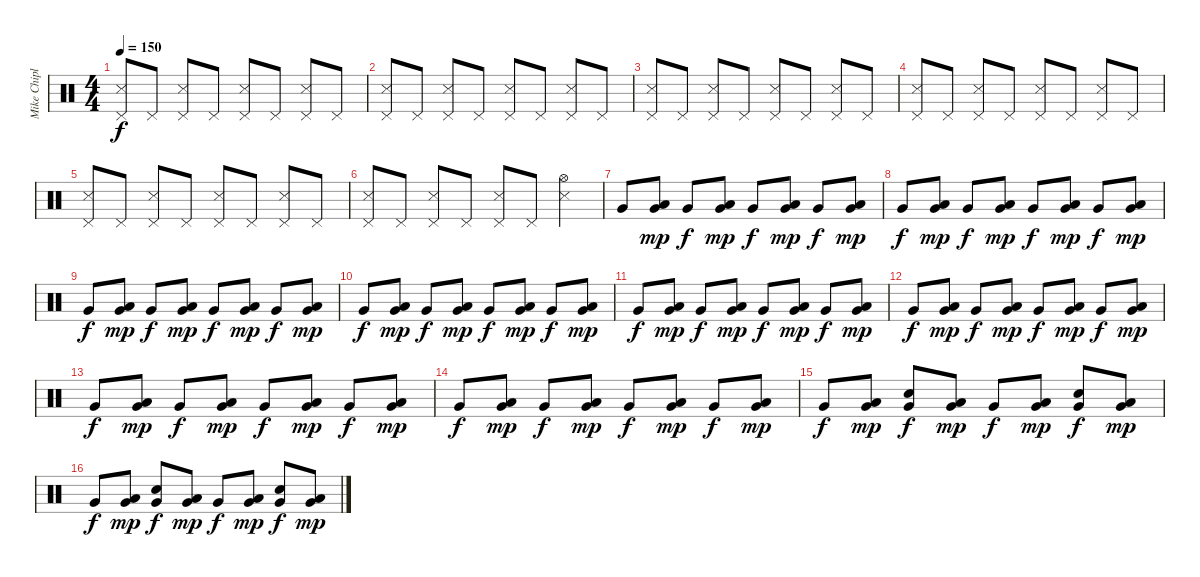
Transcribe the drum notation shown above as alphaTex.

\track ("Mike Chiplin" "Mike Chipl") {instrument percussion}
\staff {score}
\articulation defaults
\ts (4 4)
\tempo 150
\clef neutral
\ks c
("Pedal Hi-Hat (hit)" "Snare (side stick) 3").8{dy f} "Pedal Hi-Hat (hit)".8 ("Pedal Hi-Hat (hit)" "Snare (side stick) 3").8 "Pedal Hi-Hat (hit)".8 ("Pedal Hi-Hat (hit)" "Snare (side stick) 3").8 "Pedal Hi-Hat (hit)".8 ("Pedal Hi-Hat (hit)" "Snare (side stick) 3").8 "Pedal Hi-Hat (hit)".8 |
("Pedal Hi-Hat (hit)" "Snare (side stick) 3").8 "Pedal Hi-Hat (hit)".8 ("Pedal Hi-Hat (hit)" "Snare (side stick) 3").8 "Pedal Hi-Hat (hit)".8 ("Pedal Hi-Hat (hit)" "Snare (side stick) 3").8 "Pedal Hi-Hat (hit)".8 ("Pedal Hi-Hat (hit)" "Snare (side stick) 3").8 "Pedal Hi-Hat (hit)".8 |
("Pedal Hi-Hat (hit)" "Snare (side stick) 3").8 "Pedal Hi-Hat (hit)".8 ("Pedal Hi-Hat (hit)" "Snare (side stick) 3").8 "Pedal Hi-Hat (hit)".8 ("Pedal Hi-Hat (hit)" "Snare (side stick) 3").8 "Pedal Hi-Hat (hit)".8 ("Pedal Hi-Hat (hit)" "Snare (side stick) 3").8 "Pedal Hi-Hat (hit)".8 |
("Pedal Hi-Hat (hit)" "Snare (side stick) 3").8 "Pedal Hi-Hat (hit)".8 ("Pedal Hi-Hat (hit)" "Snare (side stick) 3").8 "Pedal Hi-Hat (hit)".8 ("Pedal Hi-Hat (hit)" "Snare (side stick) 3").8 "Pedal Hi-Hat (hit)".8 ("Pedal Hi-Hat (hit)" "Snare (side stick) 3").8 "Pedal Hi-Hat (hit)".8 |
("Pedal Hi-Hat (hit)" "Snare (side stick) 3").8 "Pedal Hi-Hat (hit)".8 ("Pedal Hi-Hat (hit)" "Snare (side stick) 3").8 "Pedal Hi-Hat (hit)".8 ("Pedal Hi-Hat (hit)" "Snare (side stick) 3").8 "Pedal Hi-Hat (hit)".8 ("Pedal Hi-Hat (hit)" "Snare (side stick) 3").8 "Pedal Hi-Hat (hit)".8 |
("Pedal Hi-Hat (hit)" "Snare (side stick) 3").8 "Pedal Hi-Hat (hit)".8 ("Pedal Hi-Hat (hit)" "Snare (side stick) 3").8 "Pedal Hi-Hat (hit)".8 ("Pedal Hi-Hat (hit)" "Snare (side stick) 3").8 "Pedal Hi-Hat (hit)".8 ("Hi-Hat (open)" "Snare (side stick) 3").4 |
"Very Low Tom (hit)".8 ("Low Floor Tom (hit)" "Very Low Tom (hit)").8{dy mp} "Very Low Tom (hit)".8{dy f} ("Low Floor Tom (hit)" "Very Low Tom (hit)").8{dy mp} "Very Low Tom (hit)".8{dy f} ("Low Floor Tom (hit)" "Very Low Tom (hit)").8{dy mp} "Very Low Tom (hit)".8{dy f} ("Low Floor Tom (hit)" "Very Low Tom (hit)").8{dy mp} |
"Very Low Tom (hit)".8{dy f} ("Low Floor Tom (hit)" "Very Low Tom (hit)").8{dy mp} "Very Low Tom (hit)".8{dy f} ("Low Floor Tom (hit)" "Very Low Tom (hit)").8{dy mp} "Very Low Tom (hit)".8{dy f} ("Low Floor Tom (hit)" "Very Low Tom (hit)").8{dy mp} "Very Low Tom (hit)".8{dy f} ("Low Floor Tom (hit)" "Very Low Tom (hit)").8{dy mp} |
"Very Low Tom (hit)".8{dy f} ("Low Floor Tom (hit)" "Very Low Tom (hit)").8{dy mp} "Very Low Tom (hit)".8{dy f} ("Low Floor Tom (hit)" "Very Low Tom (hit)").8{dy mp} "Very Low Tom (hit)".8{dy f} ("Low Floor Tom (hit)" "Very Low Tom (hit)").8{dy mp} "Very Low Tom (hit)".8{dy f} ("Low Floor Tom (hit)" "Very Low Tom (hit)").8{dy mp} |
"Very Low Tom (hit)".8{dy f} ("Low Floor Tom (hit)" "Very Low Tom (hit)").8{dy mp} "Very Low Tom (hit)".8{dy f} ("Low Floor Tom (hit)" "Very Low Tom (hit)").8{dy mp} "Very Low Tom (hit)".8{dy f} ("Low Floor Tom (hit)" "Very Low Tom (hit)").8{dy mp} "Very Low Tom (hit)".8{dy f} ("Low Floor Tom (hit)" "Very Low Tom (hit)").8{dy mp} |
"Very Low Tom (hit)".8{dy f} ("Low Floor Tom (hit)" "Very Low Tom (hit)").8{dy mp} "Very Low Tom (hit)".8{dy f} ("Low Floor Tom (hit)" "Very Low Tom (hit)").8{dy mp} "Very Low Tom (hit)".8{dy f} ("Low Floor Tom (hit)" "Very Low Tom (hit)").8{dy mp} "Very Low Tom (hit)".8{dy f} ("Low Floor Tom (hit)" "Very Low Tom (hit)").8{dy mp} |
"Very Low Tom (hit)".8{dy f} ("Low Floor Tom (hit)" "Very Low Tom (hit)").8{dy mp} "Very Low Tom (hit)".8{dy f} ("Low Floor Tom (hit)" "Very Low Tom (hit)").8{dy mp} "Very Low Tom (hit)".8{dy f} ("Low Floor Tom (hit)" "Very Low Tom (hit)").8{dy mp} "Very Low Tom (hit)".8{dy f} ("Low Floor Tom (hit)" "Very Low Tom (hit)").8{dy mp} |
"Very Low Tom (hit)".8{dy f} ("Low Floor Tom (hit)" "Very Low Tom (hit)").8{dy mp} "Very Low Tom (hit)".8{dy f} ("Low Floor Tom (hit)" "Very Low Tom (hit)").8{dy mp} "Very Low Tom (hit)".8{dy f} ("Low Floor Tom (hit)" "Very Low Tom (hit)").8{dy mp} "Very Low Tom (hit)".8{dy f} ("Low Floor Tom (hit)" "Very Low Tom (hit)").8{dy mp} |
"Very Low Tom (hit)".8{dy f} ("Low Floor Tom (hit)" "Very Low Tom (hit)").8{dy mp} "Very Low Tom (hit)".8{dy f} ("Low Floor Tom (hit)" "Very Low Tom (hit)").8{dy mp} "Very Low Tom (hit)".8{dy f} ("Low Floor Tom (hit)" "Very Low Tom (hit)").8{dy mp} "Very Low Tom (hit)".8{dy f} ("Low Floor Tom (hit)" "Very Low Tom (hit)").8{dy mp} |
"Very Low Tom (hit)".8{dy f} ("Low Floor Tom (hit)" "Very Low Tom (hit)").8{dy mp} ("Very Low Tom (hit)" "Snare (hit) 2").8{dy f} ("Low Floor Tom (hit)" "Very Low Tom (hit)").8{dy mp} "Very Low Tom (hit)".8{dy f} ("Low Floor Tom (hit)" "Very Low Tom (hit)").8{dy mp} ("Very Low Tom (hit)" "Snare (hit) 2").8{dy f} ("Low Floor Tom (hit)" "Very Low Tom (hit)").8{dy mp} |
"Very Low Tom (hit)".8{dy f} ("Low Floor Tom (hit)" "Very Low Tom (hit)").8{dy mp} ("Very Low Tom (hit)" "Snare (hit) 2").8{dy f} ("Low Floor Tom (hit)" "Very Low Tom (hit)").8{dy mp} "Very Low Tom (hit)".8{dy f} ("Low Floor Tom (hit)" "Very Low Tom (hit)").8{dy mp} ("Very Low Tom (hit)" "Snare (hit) 2").8{dy f} ("Low Floor Tom (hit)" "Very Low Tom (hit)").8{dy mp}
